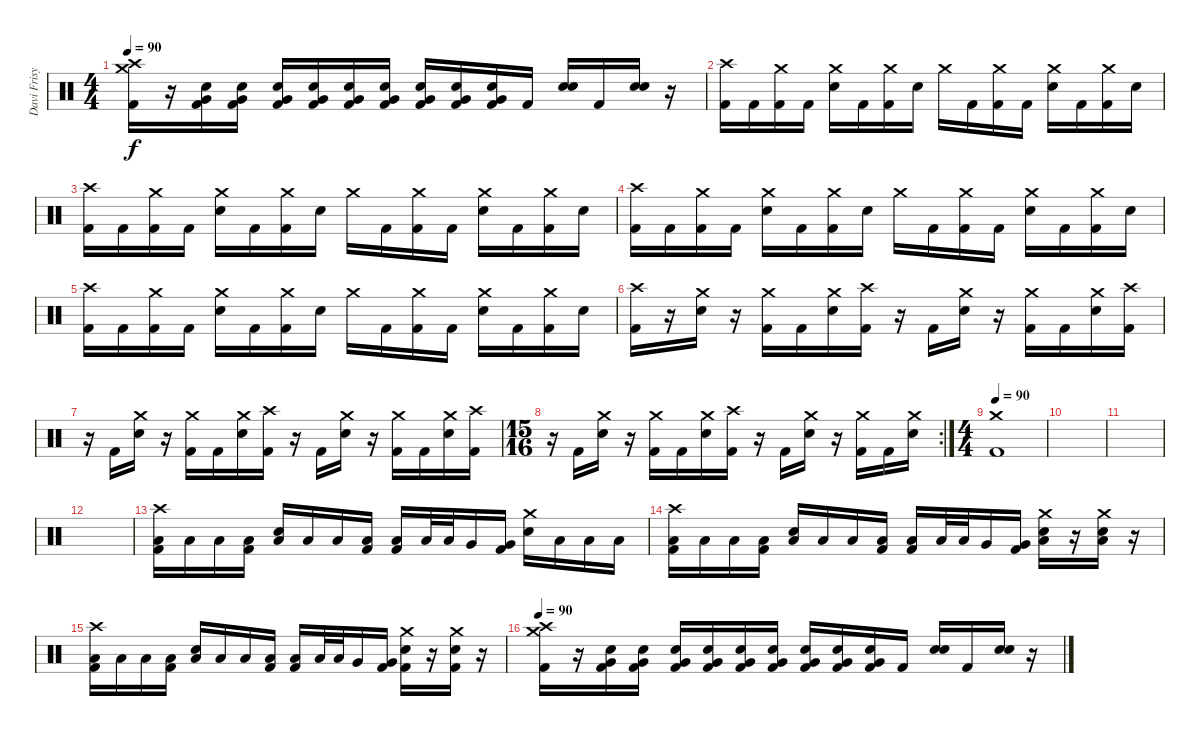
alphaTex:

\track ("Davi Frisya" "Davi Frisy") {instrument percussion}
\staff {score}
\articulation defaults
\ts (4 4)
\tempo 90
\clef neutral
\ks c
("Crash medium (hit)" "Crash high (hit)" "Kick (hit) 2").16{dy f} r.16 ("Electric Snare (hit)" "Very Low Tom (hit)" "Kick (hit) 2").16 ("Electric Snare (hit)" "Very Low Tom (hit)" "Kick (hit) 2").16 ("Electric Snare (hit)" "Very Low Tom (hit)" "Kick (hit) 2").16 ("Electric Snare (hit)" "Very Low Tom (hit)" "Kick (hit) 2").16 ("Electric Snare (hit)" "Very Low Tom (hit)" "Kick (hit) 2").16 ("Electric Snare (hit)" "Very Low Tom (hit)" "Kick (hit) 2").16 ("Electric Snare (hit)" "Very Low Tom (hit)" "Kick (hit) 2").16 ("Electric Snare (hit)" "Very Low Tom (hit)" "Kick (hit) 2").16 ("Electric Snare (hit)" "Very Low Tom (hit)" "Kick (hit) 2").16 "Kick (hit) 2".16 ("Electric Snare (hit)" "Electric Snare (hit)").16 "Kick (hit) 2".16 ("Electric Snare (hit)" "Electric Snare (hit)").16 r.16 |
("Crash high (hit)" "Kick (hit) 2").16 "Kick (hit) 2".16 ("Crash medium (hit)" "Kick (hit) 2").16 "Kick (hit) 2".16 ("Crash medium (hit)" "Electric Snare (hit)").16 "Kick (hit) 2".16 ("Crash medium (hit)" "Kick (hit) 2").16 "Electric Snare (hit)".16 "Crash medium (hit)".16 "Kick (hit) 2".16 ("Crash medium (hit)" "Kick (hit) 2").16 "Kick (hit) 2".16 ("Crash medium (hit)" "Electric Snare (hit)").16 "Kick (hit) 2".16 ("Crash medium (hit)" "Kick (hit) 2").16 "Electric Snare (hit)".16 |
("Crash high (hit)" "Kick (hit) 2").16 "Kick (hit) 2".16 ("Crash medium (hit)" "Kick (hit) 2").16 "Kick (hit) 2".16 ("Crash medium (hit)" "Electric Snare (hit)").16 "Kick (hit) 2".16 ("Crash medium (hit)" "Kick (hit) 2").16 "Electric Snare (hit)".16 "Crash medium (hit)".16 "Kick (hit) 2".16 ("Crash medium (hit)" "Kick (hit) 2").16 "Kick (hit) 2".16 ("Crash medium (hit)" "Electric Snare (hit)").16 "Kick (hit) 2".16 ("Crash medium (hit)" "Kick (hit) 2").16 "Electric Snare (hit)".16 |
("Crash high (hit)" "Kick (hit) 2").16 "Kick (hit) 2".16 ("Crash medium (hit)" "Kick (hit) 2").16 "Kick (hit) 2".16 ("Crash medium (hit)" "Electric Snare (hit)").16 "Kick (hit) 2".16 ("Crash medium (hit)" "Kick (hit) 2").16 "Electric Snare (hit)".16 "Crash medium (hit)".16 "Kick (hit) 2".16 ("Crash medium (hit)" "Kick (hit) 2").16 "Kick (hit) 2".16 ("Crash medium (hit)" "Electric Snare (hit)").16 "Kick (hit) 2".16 ("Crash medium (hit)" "Kick (hit) 2").16 "Electric Snare (hit)".16 |
("Crash high (hit)" "Kick (hit) 2").16 "Kick (hit) 2".16 ("Crash medium (hit)" "Kick (hit) 2").16 "Kick (hit) 2".16 ("Crash medium (hit)" "Electric Snare (hit)").16 "Kick (hit) 2".16 ("Crash medium (hit)" "Kick (hit) 2").16 "Electric Snare (hit)".16 "Crash medium (hit)".16 "Kick (hit) 2".16 ("Crash medium (hit)" "Kick (hit) 2").16 "Kick (hit) 2".16 ("Crash medium (hit)" "Electric Snare (hit)").16 "Kick (hit) 2".16 ("Crash medium (hit)" "Kick (hit) 2").16 "Electric Snare (hit)".16 |
("Crash high (hit)" "Kick (hit) 2").16 r.16 ("Crash medium (hit)" "Electric Snare (hit)").16 r.16 ("Crash medium (hit)" "Kick (hit) 2").16 "Kick (hit) 2".16 ("Crash medium (hit)" "Electric Snare (hit)").16 ("Crash high (hit)" "Kick (hit) 2").16 r.16 "Kick (hit) 2".16 ("Crash medium (hit)" "Electric Snare (hit)").16 r.16 ("Crash medium (hit)" "Kick (hit) 2").16 "Kick (hit) 2".16 ("Crash medium (hit)" "Electric Snare (hit)").16 ("Crash high (hit)" "Kick (hit) 2").16 |
r.16 "Kick (hit) 2".16 ("Crash medium (hit)" "Electric Snare (hit)").16 r.16 ("Crash medium (hit)" "Kick (hit) 2").16 "Kick (hit) 2".16 ("Crash medium (hit)" "Electric Snare (hit)").16 ("Crash high (hit)" "Kick (hit) 2").16 r.16 "Kick (hit) 2".16 ("Crash medium (hit)" "Electric Snare (hit)").16 r.16 ("Crash medium (hit)" "Kick (hit) 2").16 "Kick (hit) 2".16 ("Crash medium (hit)" "Electric Snare (hit)").16 ("Crash high (hit)" "Kick (hit) 2").16 |
\rc 2
\ts (15 16)
r.16 "Kick (hit) 2".16 ("Crash medium (hit)" "Electric Snare (hit)").16 r.16 ("Crash medium (hit)" "Kick (hit) 2").16 "Kick (hit) 2".16 ("Crash medium (hit)" "Electric Snare (hit)").16 ("Crash high (hit)" "Kick (hit) 2").16 r.16 "Kick (hit) 2".16 ("Crash medium (hit)" "Electric Snare (hit)").16 r.16 ("Crash medium (hit)" "Kick (hit) 2").16 "Kick (hit) 2".16 ("Crash medium (hit)" "Electric Snare (hit)").16 |
\ts (4 4)
\tempo 90
("Crash medium (hit)" "Kick (hit) 2").1 |
|
|
|
("Crash high (hit)" "Low Floor Tom (hit)" "Kick (hit) 2").16 "Low Floor Tom (hit)".16 "Low Floor Tom (hit)".16 ("Low Floor Tom (hit)" "Kick (hit) 2").16 ("Low Floor Tom (hit)" "Electric Snare (hit)").16 "Low Floor Tom (hit)".16 "Low Floor Tom (hit)".16 ("Low Floor Tom (hit)" "Kick (hit) 2").16 ("Low Floor Tom (hit)" "Kick (hit) 2").16 "Low Tom (hit)".32 "Low Tom (hit)".32 "Very Low Tom (hit)".16 ("Very Low Tom (hit)" "Kick (hit) 2").16 ("Crash medium (hit)" "Electric Snare (hit)").16 "Low Floor Tom (hit)".16 "Low Floor Tom (hit)".16 "Low Floor Tom (hit)".16 |
("Crash high (hit)" "Low Floor Tom (hit)" "Kick (hit) 2").16 "Low Floor Tom (hit)".16 "Low Floor Tom (hit)".16 ("Low Floor Tom (hit)" "Kick (hit) 2").16 ("Low Floor Tom (hit)" "Electric Snare (hit)").16 "Low Floor Tom (hit)".16 "Low Floor Tom (hit)".16 ("Low Floor Tom (hit)" "Kick (hit) 2").16 ("Low Floor Tom (hit)" "Kick (hit) 2").16 "Low Tom (hit)".32 "Low Tom (hit)".32 "Very Low Tom (hit)".16 ("Very Low Tom (hit)" "Kick (hit) 2").16 ("Crash medium (hit)" "Low Floor Tom (hit)" "Electric Snare (hit)").16 r.16 ("Crash medium (hit)" "Low Floor Tom (hit)" "Electric Snare (hit)").16 r.16 |
("Crash high (hit)" "Low Floor Tom (hit)" "Kick (hit) 2").16 "Low Floor Tom (hit)".16 "Low Floor Tom (hit)".16 ("Low Floor Tom (hit)" "Kick (hit) 2").16 ("Low Floor Tom (hit)" "Electric Snare (hit)").16 "Low Floor Tom (hit)".16 "Low Floor Tom (hit)".16 ("Low Floor Tom (hit)" "Kick (hit) 2").16 ("Low Floor Tom (hit)" "Kick (hit) 2").16 "Low Tom (hit)".32 "Low Tom (hit)".32 "Very Low Tom (hit)".16 ("Very Low Tom (hit)" "Kick (hit) 2").16 ("Crash medium (hit)" "Electric Snare (hit)" "Kick (hit) 2").16 r.16 ("Crash medium (hit)" "Electric Snare (hit)" "Kick (hit) 2").16 r.16 |
\tempo 90
("Crash medium (hit)" "Crash high (hit)" "Kick (hit) 2").16 r.16 ("Electric Snare (hit)" "Very Low Tom (hit)" "Kick (hit) 2").16 ("Electric Snare (hit)" "Very Low Tom (hit)" "Kick (hit) 2").16 ("Electric Snare (hit)" "Very Low Tom (hit)" "Kick (hit) 2").16 ("Electric Snare (hit)" "Very Low Tom (hit)" "Kick (hit) 2").16 ("Electric Snare (hit)" "Very Low Tom (hit)" "Kick (hit) 2").16 ("Electric Snare (hit)" "Very Low Tom (hit)" "Kick (hit) 2").16 ("Electric Snare (hit)" "Very Low Tom (hit)" "Kick (hit) 2").16 ("Electric Snare (hit)" "Very Low Tom (hit)" "Kick (hit) 2").16 ("Electric Snare (hit)" "Very Low Tom (hit)" "Kick (hit) 2").16 "Kick (hit) 2".16 ("Electric Snare (hit)" "Electric Snare (hit)").16 "Kick (hit) 2".16 ("Electric Snare (hit)" "Electric Snare (hit)").16 r.16
